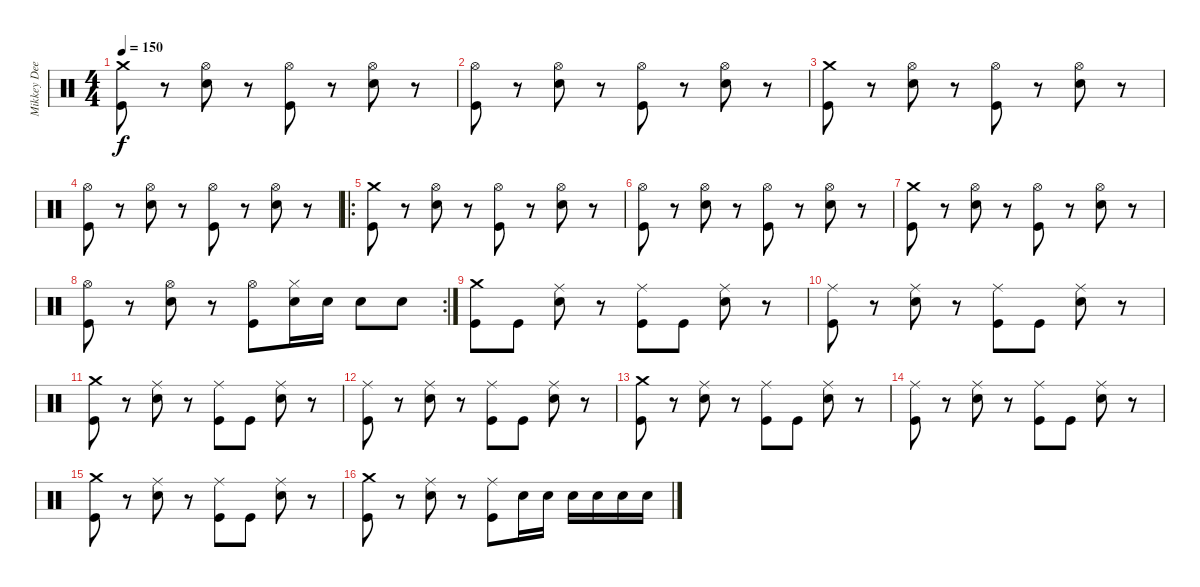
\track ("Mikkey Dee" "Mikkey Dee") {instrument percussion}
\staff {score}
\articulation defaults
\ts (4 4)
\tempo 150
\clef neutral
\ks c
("Crash medium (hit)" "Kick (hit)").8{dy f} r.8 ("Hi-Hat (open)" "Snare (hit) 2").8 r.8 ("Hi-Hat (open)" "Kick (hit)").8 r.8 ("Hi-Hat (open)" "Snare (hit) 2").8 r.8 |
("Hi-Hat (open)" "Kick (hit)").8 r.8 ("Hi-Hat (open)" "Snare (hit) 2").8 r.8 ("Hi-Hat (open)" "Kick (hit)").8 r.8 ("Hi-Hat (open)" "Snare (hit) 2").8 r.8 |
("Crash medium (hit)" "Kick (hit)").8 r.8 ("Hi-Hat (open)" "Snare (hit) 2").8 r.8 ("Hi-Hat (open)" "Kick (hit)").8 r.8 ("Hi-Hat (open)" "Snare (hit) 2").8 r.8 |
("Hi-Hat (open)" "Kick (hit)").8 r.8 ("Hi-Hat (open)" "Snare (hit) 2").8 r.8 ("Hi-Hat (open)" "Kick (hit)").8 r.8 ("Hi-Hat (open)" "Snare (hit) 2").8 r.8 |
\ro
("Crash medium (hit)" "Kick (hit)").8 r.8 ("Hi-Hat (open)" "Snare (hit) 2").8 r.8 ("Hi-Hat (open)" "Kick (hit)").8 r.8 ("Hi-Hat (open)" "Snare (hit) 2").8 r.8 |
("Hi-Hat (open)" "Kick (hit)").8 r.8 ("Hi-Hat (open)" "Snare (hit) 2").8 r.8 ("Hi-Hat (open)" "Kick (hit)").8 r.8 ("Hi-Hat (open)" "Snare (hit) 2").8 r.8 |
("Crash medium (hit)" "Kick (hit)").8 r.8 ("Hi-Hat (open)" "Snare (hit) 2").8 r.8 ("Hi-Hat (open)" "Kick (hit)").8 r.8 ("Hi-Hat (open)" "Snare (hit) 2").8 r.8 |
\rc 2
("Hi-Hat (open)" "Kick (hit)").8 r.8 ("Hi-Hat (open)" "Snare (hit) 2").8 r.8 ("Hi-Hat (open)" "Kick (hit)").8 ("Hi-Hat (closed)" "Snare (hit) 2").16 "Snare (hit) 2".16 "Snare (hit) 2".8 "Snare (hit) 2".8 |
("Crash medium (hit)" "Kick (hit)").8 "Kick (hit)".8 ("Ride (middle)" "Snare (hit) 2").8 r.8 ("Ride (middle)" "Kick (hit)").8 "Kick (hit)".8 ("Ride (middle)" "Snare (hit) 2").8 r.8 |
("Ride (middle)" "Kick (hit)").8 r.8 ("Ride (middle)" "Snare (hit) 2").8 r.8 ("Ride (middle)" "Kick (hit)").8 "Kick (hit)".8 ("Ride (middle)" "Snare (hit) 2").8 r.8 |
("Crash medium (hit)" "Kick (hit)").8 r.8 ("Ride (middle)" "Snare (hit) 2").8 r.8 ("Ride (middle)" "Kick (hit)").8 "Kick (hit)".8 ("Ride (middle)" "Snare (hit) 2").8 r.8 |
("Ride (middle)" "Kick (hit)").8 r.8 ("Ride (middle)" "Snare (hit) 2").8 r.8 ("Ride (middle)" "Kick (hit)").8 "Kick (hit)".8 ("Ride (middle)" "Snare (hit) 2").8 r.8 |
("Crash medium (hit)" "Kick (hit)").8 r.8 ("Ride (middle)" "Snare (hit) 2").8 r.8 ("Ride (middle)" "Kick (hit)").8 "Kick (hit)".8 ("Ride (middle)" "Snare (hit) 2").8 r.8 |
("Ride (middle)" "Kick (hit)").8 r.8 ("Ride (middle)" "Snare (hit) 2").8 r.8 ("Ride (middle)" "Kick (hit)").8 "Kick (hit)".8 ("Ride (middle)" "Snare (hit) 2").8 r.8 |
("Crash medium (hit)" "Kick (hit)").8 r.8 ("Ride (middle)" "Snare (hit) 2").8 r.8 ("Ride (middle)" "Kick (hit)").8 "Kick (hit)".8 ("Ride (middle)" "Snare (hit) 2").8 r.8 |
("Crash medium (hit)" "Kick (hit)").8 r.8 ("Ride (middle)" "Snare (hit) 2").8 r.8 ("Ride (middle)" "Kick (hit)").8 "Snare (hit) 2".16 "Snare (hit) 2".16 "Snare (hit) 2".16 "Snare (hit) 2".16 "Snare (hit) 2".16 "Snare (hit) 2".16
